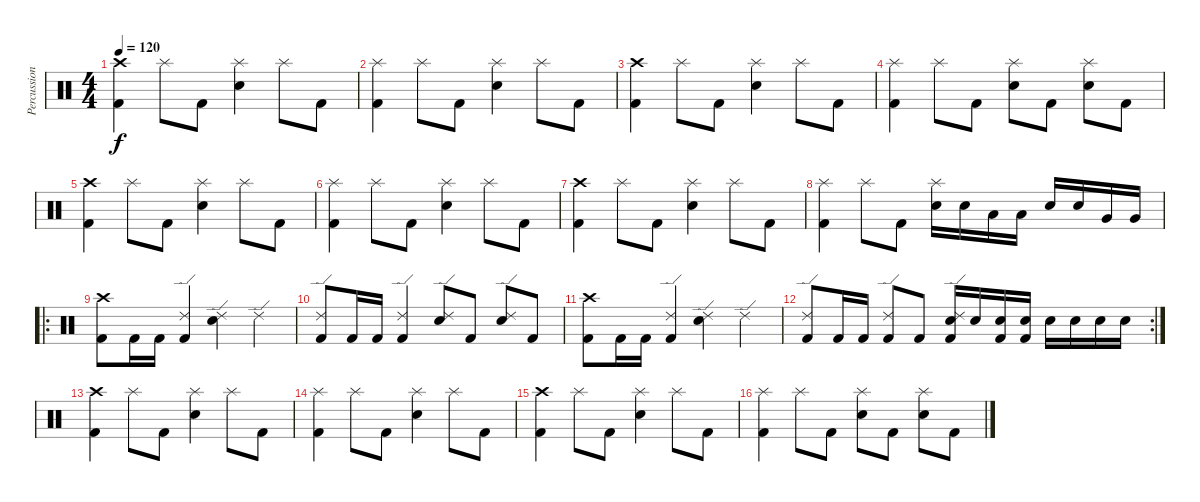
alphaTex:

\track ("Percussion" "Percussion") {instrument percussion}
\staff {score}
\articulation defaults
\ts (4 4)
\tempo 120
\clef neutral
\ks c
("Crash high (hit)" "Kick (hit) 2").4{dy f} "Splash (hit)".8 "Kick (hit) 2".8 ("Splash (hit)" "Electric Snare (hit)").4 "Splash (hit)".8 "Kick (hit) 2".8 |
("Splash (hit)" "Kick (hit) 2").4 "Splash (hit)".8 "Kick (hit) 2".8 ("Splash (hit)" "Electric Snare (hit)").4 "Splash (hit)".8 "Kick (hit) 2".8 |
("Crash high (hit)" "Kick (hit) 2").4 "Splash (hit)".8 "Kick (hit) 2".8 ("Splash (hit)" "Electric Snare (hit)").4 "Splash (hit)".8 "Kick (hit) 2".8 |
("Splash (hit)" "Kick (hit) 2").4 "Splash (hit)".8 "Kick (hit) 2".8 ("Splash (hit)" "Electric Snare (hit)").8 "Kick (hit) 2".8 ("Splash (hit)" "Electric Snare (hit)").8 "Kick (hit) 2".8 |
("Crash high (hit)" "Kick (hit) 2").4 "Splash (hit)".8 "Kick (hit) 2".8 ("Splash (hit)" "Electric Snare (hit)").4 "Splash (hit)".8 "Kick (hit) 2".8 |
("Splash (hit)" "Kick (hit) 2").4 "Splash (hit)".8 "Kick (hit) 2".8 ("Splash (hit)" "Electric Snare (hit)").4 "Splash (hit)".8 "Kick (hit) 2".8 |
("Crash high (hit)" "Kick (hit) 2").4 "Splash (hit)".8 "Kick (hit) 2".8 ("Splash (hit)" "Electric Snare (hit)").4 "Splash (hit)".8 "Kick (hit) 2".8 |
("Splash (hit)" "Kick (hit) 2").4 "Splash (hit)".8 "Kick (hit) 2".8 ("Splash (hit)" "Electric Snare (hit)").16 "Electric Snare (hit)".16 "Low Tom (hit)".16 "Low Tom (hit)".16 "Electric Snare (hit)".16 "Electric Snare (hit)".16 "Very Low Tom (hit)".16 "Very Low Tom (hit)".16 |
\ro
("Crash high (hit)" "Kick (hit) 2").8 "Kick (hit) 2".16 "Kick (hit) 2".16 ("Ride (edge) 2" "Kick (hit) 2").4 ("Ride (edge) 2" "Electric Snare (hit)").4 "Ride (edge) 2".4 |
("Ride (edge) 2" "Kick (hit) 2").8 "Kick (hit) 2".16 "Kick (hit) 2".16 ("Ride (edge) 2" "Kick (hit) 2").4 ("Ride (edge) 2" "Electric Snare (hit)").8 "Kick (hit) 2".8 ("Ride (edge) 2" "Electric Snare (hit)").8 "Kick (hit) 2".8 |
("Crash high (hit)" "Kick (hit) 2").8 "Kick (hit) 2".16 "Kick (hit) 2".16 ("Ride (edge) 2" "Kick (hit) 2").4 ("Ride (edge) 2" "Electric Snare (hit)").4 "Ride (edge) 2".4 |
\rc 2
("Ride (edge) 2" "Kick (hit) 2").8 "Kick (hit) 2".16 "Kick (hit) 2".16 ("Ride (edge) 2" "Kick (hit) 2").8 "Kick (hit) 2".8 ("Ride (edge) 2" "Electric Snare (hit)" "Kick (hit) 2").16 "Electric Snare (hit)".16 ("Electric Snare (hit)" "Kick (hit) 2").16 ("Electric Snare (hit)" "Kick (hit) 2").16 "Electric Snare (hit)".16 "Electric Snare (hit)".16 "Electric Snare (hit)".16 "Electric Snare (hit)".16 |
("Crash high (hit)" "Kick (hit) 2").4 "Splash (hit)".8 "Kick (hit) 2".8 ("Splash (hit)" "Electric Snare (hit)").4 "Splash (hit)".8 "Kick (hit) 2".8 |
("Splash (hit)" "Kick (hit) 2").4 "Splash (hit)".8 "Kick (hit) 2".8 ("Splash (hit)" "Electric Snare (hit)").4 "Splash (hit)".8 "Kick (hit) 2".8 |
("Crash high (hit)" "Kick (hit) 2").4 "Splash (hit)".8 "Kick (hit) 2".8 ("Splash (hit)" "Electric Snare (hit)").4 "Splash (hit)".8 "Kick (hit) 2".8 |
("Splash (hit)" "Kick (hit) 2").4 "Splash (hit)".8 "Kick (hit) 2".8 ("Splash (hit)" "Electric Snare (hit)").8 "Kick (hit) 2".8 ("Splash (hit)" "Electric Snare (hit)").8 "Kick (hit) 2".8
